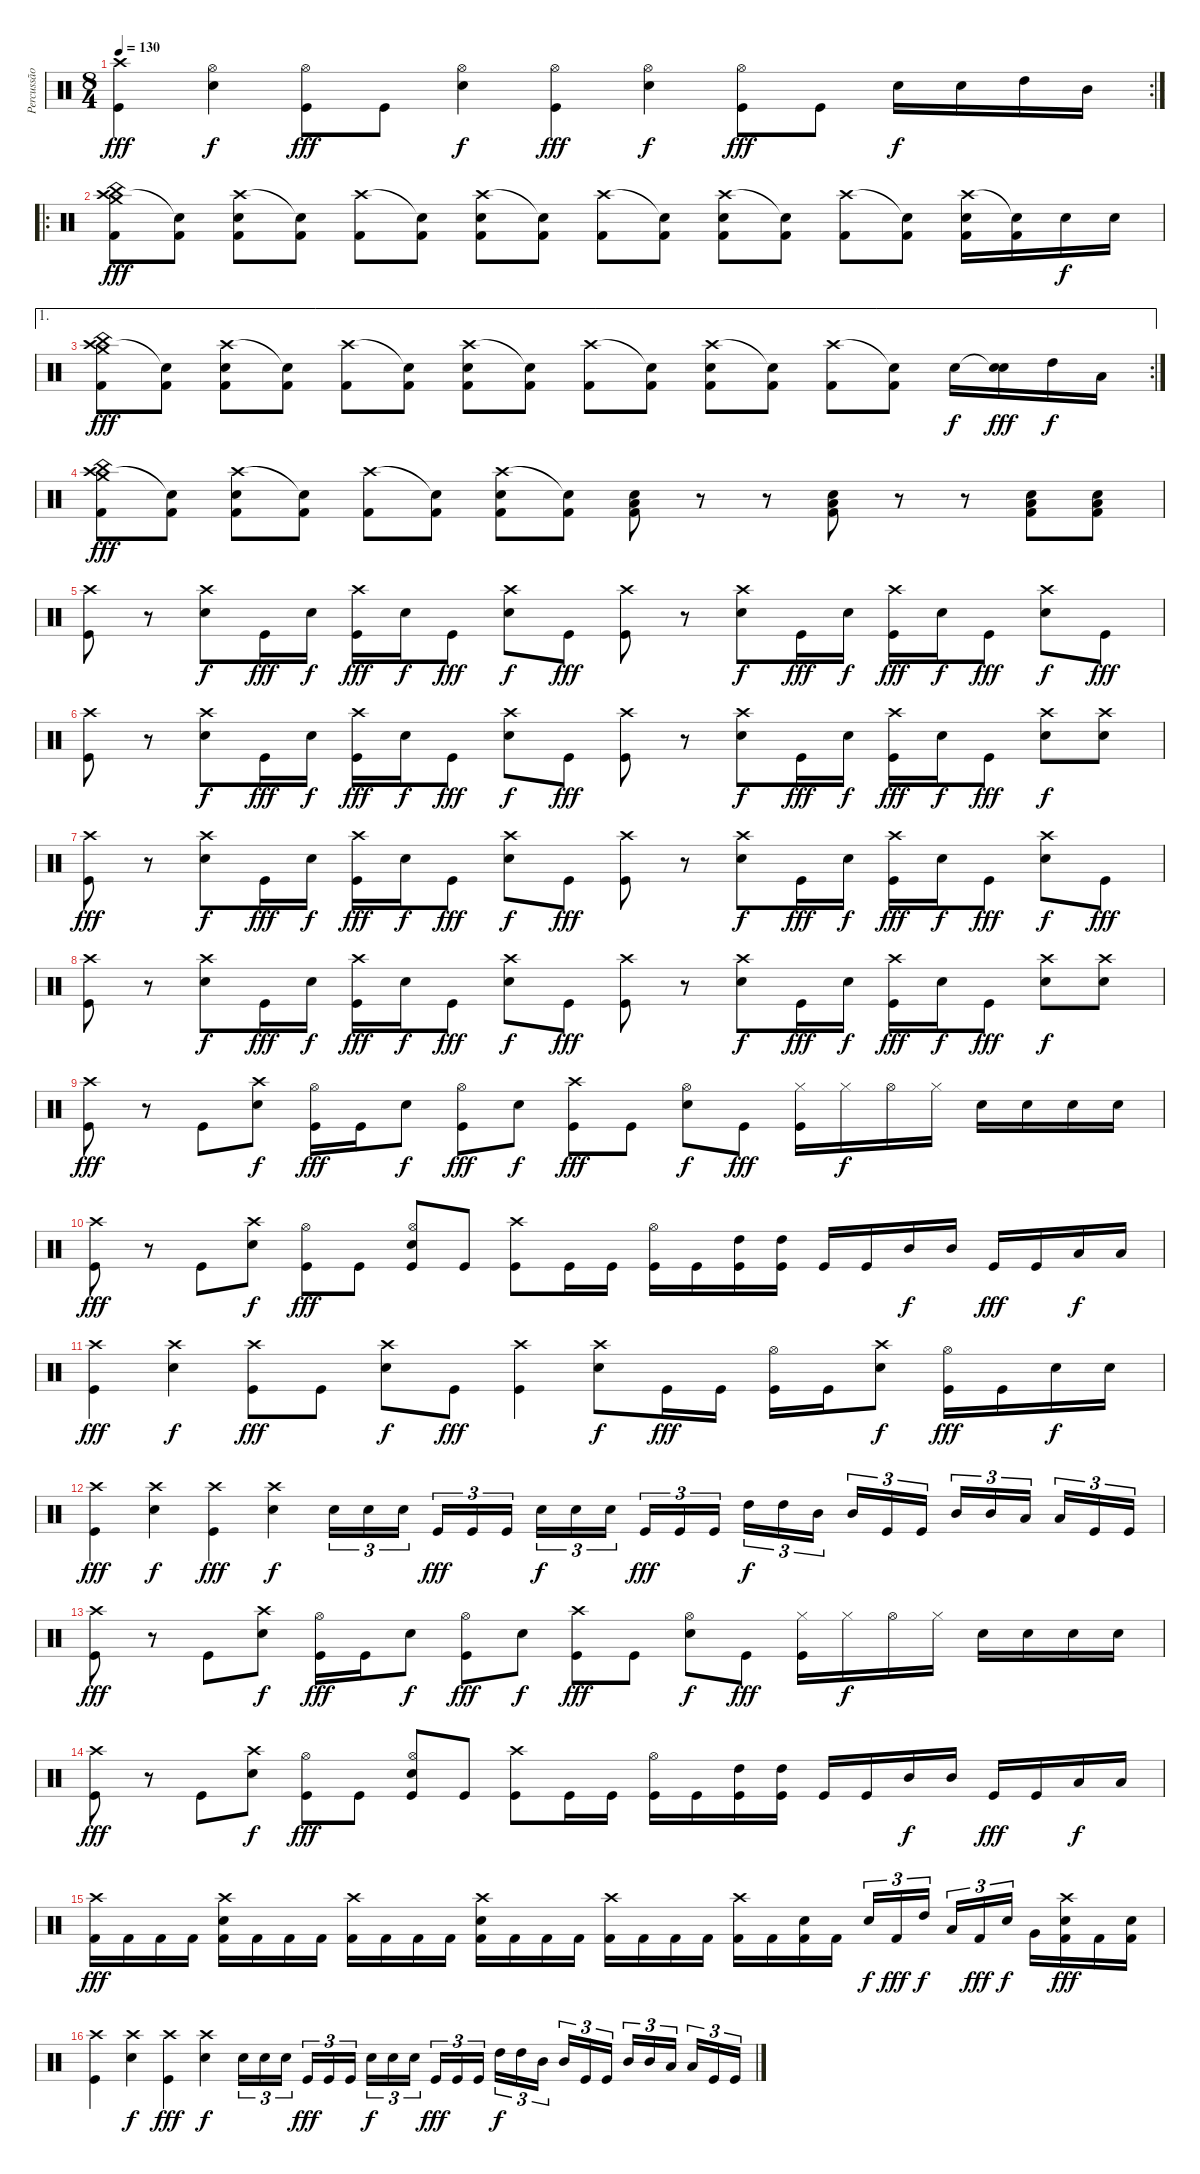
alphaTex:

\track ("Percussão" "Percussão") {instrument percussion}
\staff {score}
\articulation defaults
\rc 2
\ts (8 4)
\tempo 130
\clef neutral
\ks c
("Crash high (hit)" "Kick (hit)").4{dy fff} ("Hi-Hat (open)" "Electric Snare (hit)").4{dy f} ("Hi-Hat (open)" "Kick (hit)").8{dy fff} "Kick (hit)".8 ("Hi-Hat (open)" "Electric Snare (hit)").4{dy f} ("Hi-Hat (open)" "Kick (hit)").4{dy fff} ("Hi-Hat (open)" "Electric Snare (hit)").4{dy f} ("Hi-Hat (open)" "Kick (hit)").8{dy fff} "Kick (hit)".8 "Electric Snare (hit)".16{dy f} "Electric Snare (hit)".16 "High Tom (hit)".16 "Mid Tom (hit)".16 |
\ro
("Crash high (hit)" "Crash medium (hit)" "China (hit)" "Kick (hit) 2").8{dy fff} ("Snare (hit)"{t} "Kick (hit) 2").8 ("Crash high (hit)" "Electric Snare (hit)" "Kick (hit) 2").8 ("Snare (hit)"{t} "Kick (hit) 2").8 ("Crash high (hit)" "Kick (hit) 2").8 ("Snare (hit)"{t} "Kick (hit) 2").8 ("Crash high (hit)" "Electric Snare (hit)" "Kick (hit) 2").8 ("Snare (hit)"{t} "Kick (hit) 2").8 ("Crash high (hit)" "Kick (hit) 2").8 ("Snare (hit)"{t} "Kick (hit) 2").8 ("Crash high (hit)" "Electric Snare (hit)" "Kick (hit) 2").8 ("Snare (hit)"{t} "Kick (hit) 2").8 ("Crash high (hit)" "Kick (hit) 2").8 ("Snare (hit)"{t} "Kick (hit) 2").8 ("Crash high (hit)" "Electric Snare (hit)" "Kick (hit) 2").16 ("Snare (hit)"{t} "Kick (hit) 2").16 "Electric Snare (hit)".16{dy f} "Electric Snare (hit)".16 |
\ae 1
\rc 2
("Crash high (hit)" "Crash medium (hit)" "China (hit)" "Kick (hit) 2").8{dy fff} ("Snare (hit)"{t} "Kick (hit) 2").8 ("Crash high (hit)" "Electric Snare (hit)" "Kick (hit) 2").8 ("Snare (hit)"{t} "Kick (hit) 2").8 ("Crash high (hit)" "Kick (hit) 2").8 ("Snare (hit)"{t} "Kick (hit) 2").8 ("Crash high (hit)" "Electric Snare (hit)" "Kick (hit) 2").8 ("Snare (hit)"{t} "Kick (hit) 2").8 ("Crash high (hit)" "Kick (hit) 2").8 ("Snare (hit)"{t} "Kick (hit) 2").8 ("Crash high (hit)" "Electric Snare (hit)" "Kick (hit) 2").8 ("Snare (hit)"{t} "Kick (hit) 2").8 ("Crash high (hit)" "Kick (hit) 2").8 ("Snare (hit)"{t} "Kick (hit) 2").8 "Electric Snare (hit)".16{dy f} ("Snare (hit)"{t} "Electric Snare (hit)").16{dy fff} "High Tom (hit)".16{dy f} "Low Tom (hit)".16 |
("Crash high (hit)" "Crash medium (hit)" "China (hit)" "Kick (hit) 2").8{dy fff} ("Snare (hit)"{t} "Kick (hit) 2").8 ("Crash high (hit)" "Electric Snare (hit)" "Kick (hit) 2").8 ("Snare (hit)"{t} "Kick (hit) 2").8 ("Crash high (hit)" "Kick (hit) 2").8 ("Snare (hit)"{t} "Kick (hit) 2").8 ("Crash high (hit)" "Electric Snare (hit)" "Kick (hit) 2").8 ("Snare (hit)"{t} "Kick (hit) 2").8 ("Electric Snare (hit)" "Low Tom (hit)" "Kick (hit) 2").8 r.8 r.8 ("Electric Snare (hit)" "Low Tom (hit)" "Kick (hit) 2").8 r.8 r.8 ("Electric Snare (hit)" "Low Tom (hit)" "Kick (hit) 2").8 ("Electric Snare (hit)" "Low Tom (hit)" "Kick (hit) 2").8 |
("Crash high (hit)" "Kick (hit)").8 r.8 ("Crash high (hit)" "Electric Snare (hit)").8{dy f} "Kick (hit)".16{dy fff} "Electric Snare (hit)".16{dy f} ("Crash high (hit)" "Kick (hit)").16{dy fff} "Electric Snare (hit)".16{dy f} "Kick (hit)".8{dy fff} ("Crash high (hit)" "Electric Snare (hit)").8{dy f} "Kick (hit)".8{dy fff} ("Crash high (hit)" "Kick (hit)").8 r.8 ("Crash high (hit)" "Electric Snare (hit)").8{dy f} "Kick (hit)".16{dy fff} "Electric Snare (hit)".16{dy f} ("Crash high (hit)" "Kick (hit)").16{dy fff} "Electric Snare (hit)".16{dy f} "Kick (hit)".8{dy fff} ("Crash high (hit)" "Electric Snare (hit)").8{dy f} "Kick (hit)".8{dy fff} |
("Crash high (hit)" "Kick (hit)").8 r.8 ("Crash high (hit)" "Electric Snare (hit)").8{dy f} "Kick (hit)".16{dy fff} "Electric Snare (hit)".16{dy f} ("Crash high (hit)" "Kick (hit)").16{dy fff} "Electric Snare (hit)".16{dy f} "Kick (hit)".8{dy fff} ("Crash high (hit)" "Electric Snare (hit)").8{dy f} "Kick (hit)".8{dy fff} ("Crash high (hit)" "Kick (hit)").8 r.8 ("Crash high (hit)" "Electric Snare (hit)").8{dy f} "Kick (hit)".16{dy fff} "Electric Snare (hit)".16{dy f} ("Crash high (hit)" "Kick (hit)").16{dy fff} "Electric Snare (hit)".16{dy f} "Kick (hit)".8{dy fff} ("Crash high (hit)" "Electric Snare (hit)").8{dy f} ("Crash high (hit)" "Electric Snare (hit)").8 |
("Crash high (hit)" "Kick (hit)").8{dy fff} r.8 ("Crash high (hit)" "Electric Snare (hit)").8{dy f} "Kick (hit)".16{dy fff} "Electric Snare (hit)".16{dy f} ("Crash high (hit)" "Kick (hit)").16{dy fff} "Electric Snare (hit)".16{dy f} "Kick (hit)".8{dy fff} ("Crash high (hit)" "Electric Snare (hit)").8{dy f} "Kick (hit)".8{dy fff} ("Crash high (hit)" "Kick (hit)").8 r.8 ("Crash high (hit)" "Electric Snare (hit)").8{dy f} "Kick (hit)".16{dy fff} "Electric Snare (hit)".16{dy f} ("Crash high (hit)" "Kick (hit)").16{dy fff} "Electric Snare (hit)".16{dy f} "Kick (hit)".8{dy fff} ("Crash high (hit)" "Electric Snare (hit)").8{dy f} "Kick (hit)".8{dy fff} |
("Crash high (hit)" "Kick (hit)").8 r.8 ("Crash high (hit)" "Electric Snare (hit)").8{dy f} "Kick (hit)".16{dy fff} "Electric Snare (hit)".16{dy f} ("Crash high (hit)" "Kick (hit)").16{dy fff} "Electric Snare (hit)".16{dy f} "Kick (hit)".8{dy fff} ("Crash high (hit)" "Electric Snare (hit)").8{dy f} "Kick (hit)".8{dy fff} ("Crash high (hit)" "Kick (hit)").8 r.8 ("Crash high (hit)" "Electric Snare (hit)").8{dy f} "Kick (hit)".16{dy fff} "Electric Snare (hit)".16{dy f} ("Crash high (hit)" "Kick (hit)").16{dy fff} "Electric Snare (hit)".16{dy f} "Kick (hit)".8{dy fff} ("Crash high (hit)" "Electric Snare (hit)").8{dy f} ("Crash high (hit)" "Electric Snare (hit)").8 |
("Crash high (hit)" "Kick (hit)").8{dy fff} r.8 "Kick (hit)".8 ("Crash high (hit)" "Electric Snare (hit)").8{dy f} ("Hi-Hat (open)" "Kick (hit)").16{dy fff} "Kick (hit)".16 "Electric Snare (hit)".8{dy f} ("Hi-Hat (open)" "Kick (hit)").8{dy fff} "Electric Snare (hit)".8{dy f} ("Crash high (hit)" "Kick (hit)").8{dy fff} "Kick (hit)".8 ("Hi-Hat (open)" "Electric Snare (hit)").8{dy f} "Kick (hit)".8{dy fff} ("Hi-Hat (closed)" "Kick (hit)").16 "Hi-Hat (closed)".16{dy f} "Hi-Hat (open)".16 "Hi-Hat (closed)".16 "Electric Snare (hit)".16 "Electric Snare (hit)".16 "Electric Snare (hit)".16 "Electric Snare (hit)".16 |
("Crash high (hit)" "Kick (hit)").8{dy fff} r.8 "Kick (hit)".8 ("Crash high (hit)" "Electric Snare (hit)").8{dy f} ("Hi-Hat (open)" "Kick (hit)").8{dy fff} "Kick (hit)".8 ("Hi-Hat (open)" "Electric Snare (hit)" "Kick (hit)").8 "Kick (hit)".8 ("Crash high (hit)" "Kick (hit)").8 "Kick (hit)".16 "Kick (hit)".16 ("Hi-Hat (open)" "Kick (hit)").16 "Kick (hit)".16 ("High Tom (hit)" "Kick (hit)").16 ("High Tom (hit)" "Kick (hit)").16 "Kick (hit)".16 "Kick (hit)".16 "Mid Tom (hit)".16{dy f} "Mid Tom (hit)".16 "Kick (hit)".16{dy fff} "Kick (hit)".16 "Low Tom (hit)".16{dy f} "Low Tom (hit)".16 |
("Crash high (hit)" "Kick (hit)").4{dy fff} ("Crash high (hit)" "Electric Snare (hit)").4{dy f} ("Crash high (hit)" "Kick (hit)").8{dy fff} "Kick (hit)".8 ("Crash high (hit)" "Electric Snare (hit)").8{dy f} "Kick (hit)".8{dy fff} ("Crash high (hit)" "Kick (hit)").4 ("Crash high (hit)" "Electric Snare (hit)").8{dy f} "Kick (hit)".16{dy fff} "Kick (hit)".16 ("Hi-Hat (open)" "Kick (hit)").16 "Kick (hit)".16 ("Crash high (hit)" "Electric Snare (hit)").8{dy f} ("Hi-Hat (open)" "Kick (hit)").16{dy fff} "Kick (hit)".16 "Electric Snare (hit)".16{dy f} "Electric Snare (hit)".16 |
("Crash high (hit)" "Kick (hit)").4{dy fff} ("Crash high (hit)" "Electric Snare (hit)").4{dy f} ("Crash high (hit)" "Kick (hit)").4{dy fff} ("Crash high (hit)" "Electric Snare (hit)").4{dy f} "Electric Snare (hit)".16{tu (3 2)} "Electric Snare (hit)".16{tu (3 2)} "Electric Snare (hit)".16{tu (3 2)} "Kick (hit)".16{tu (3 2) dy fff} "Kick (hit)".16{tu (3 2)} "Kick (hit)".16{tu (3 2)} "Electric Snare (hit)".16{tu (3 2) dy f} "Electric Snare (hit)".16{tu (3 2)} "Electric Snare (hit)".16{tu (3 2)} "Kick (hit)".16{tu (3 2) dy fff} "Kick (hit)".16{tu (3 2)} "Kick (hit)".16{tu (3 2)} "High Tom (hit)".16{tu (3 2) dy f} "High Tom (hit)".16{tu (3 2)} "Mid Tom (hit)".16{tu (3 2)} "Mid Tom (hit)".16{tu (3 2)} "Kick (hit)".16{tu (3 2)} "Kick (hit)".16{tu (3 2)} "Mid Tom (hit)".16{tu (3 2)} "Mid Tom (hit)".16{tu (3 2)} "Low Tom (hit)".16{tu (3 2)} "Low Tom (hit)".16{tu (3 2)} "Kick (hit)".16{tu (3 2)} "Kick (hit)".16{tu (3 2)} |
("Crash high (hit)" "Kick (hit)").8{dy fff} r.8 "Kick (hit)".8 ("Crash high (hit)" "Electric Snare (hit)").8{dy f} ("Hi-Hat (open)" "Kick (hit)").16{dy fff} "Kick (hit)".16 "Electric Snare (hit)".8{dy f} ("Hi-Hat (open)" "Kick (hit)").8{dy fff} "Electric Snare (hit)".8{dy f} ("Crash high (hit)" "Kick (hit)").8{dy fff} "Kick (hit)".8 ("Hi-Hat (open)" "Electric Snare (hit)").8{dy f} "Kick (hit)".8{dy fff} ("Hi-Hat (closed)" "Kick (hit)").16 "Hi-Hat (closed)".16{dy f} "Hi-Hat (open)".16 "Hi-Hat (closed)".16 "Electric Snare (hit)".16 "Electric Snare (hit)".16 "Electric Snare (hit)".16 "Electric Snare (hit)".16 |
("Crash high (hit)" "Kick (hit)").8{dy fff} r.8 "Kick (hit)".8 ("Crash high (hit)" "Electric Snare (hit)").8{dy f} ("Hi-Hat (open)" "Kick (hit)").8{dy fff} "Kick (hit)".8 ("Hi-Hat (open)" "Electric Snare (hit)" "Kick (hit)").8 "Kick (hit)".8 ("Crash high (hit)" "Kick (hit)").8 "Kick (hit)".16 "Kick (hit)".16 ("Hi-Hat (open)" "Kick (hit)").16 "Kick (hit)".16 ("High Tom (hit)" "Kick (hit)").16 ("High Tom (hit)" "Kick (hit)").16 "Kick (hit)".16 "Kick (hit)".16 "Mid Tom (hit)".16{dy f} "Mid Tom (hit)".16 "Kick (hit)".16{dy fff} "Kick (hit)".16 "Low Tom (hit)".16{dy f} "Low Tom (hit)".16 |
("Crash high (hit)" "Kick (hit) 2").16{dy fff} "Kick (hit) 2".16 "Kick (hit) 2".16 "Kick (hit) 2".16 ("Crash high (hit)" "Kick (hit) 2" "Electric Snare (hit)").16 "Kick (hit) 2".16 "Kick (hit) 2".16 "Kick (hit) 2".16 ("Crash high (hit)" "Kick (hit) 2").16 "Kick (hit) 2".16 "Kick (hit) 2".16 "Kick (hit) 2".16 ("Crash high (hit)" "Kick (hit) 2" "Electric Snare (hit)").16 "Kick (hit) 2".16 "Kick (hit) 2".16 "Kick (hit) 2".16 ("Crash high (hit)" "Kick (hit) 2").16 "Kick (hit) 2".16 "Kick (hit) 2".16 "Kick (hit) 2".16 ("Crash high (hit)" "Kick (hit) 2").16 "Kick (hit) 2".16 ("Kick (hit) 2" "Electric Snare (hit)").16 "Kick (hit) 2".16 "Electric Snare (hit)".16{tu (3 2) dy f} "Kick (hit) 2".16{tu (3 2) dy fff} "High Tom (hit)".16{tu (3 2) dy f} "Low Tom (hit)".16{tu (3 2)} "Kick (hit) 2".16{tu (3 2) dy fff} "Electric Snare (hit)".16{tu (3 2) dy f} "Very Low Tom (hit)".16 ("Crash high (hit)" "Kick (hit) 2" "Electric Snare (hit)").16{dy fff} "Kick (hit) 2".16 ("Kick (hit) 2" "Electric Snare (hit)").16 |
("Crash high (hit)" "Kick (hit)").4 ("Crash high (hit)" "Electric Snare (hit)").4{dy f} ("Crash high (hit)" "Kick (hit)").4{dy fff} ("Crash high (hit)" "Electric Snare (hit)").4{dy f} "Electric Snare (hit)".16{tu (3 2)} "Electric Snare (hit)".16{tu (3 2)} "Electric Snare (hit)".16{tu (3 2)} "Kick (hit)".16{tu (3 2) dy fff} "Kick (hit)".16{tu (3 2)} "Kick (hit)".16{tu (3 2)} "Electric Snare (hit)".16{tu (3 2) dy f} "Electric Snare (hit)".16{tu (3 2)} "Electric Snare (hit)".16{tu (3 2)} "Kick (hit)".16{tu (3 2) dy fff} "Kick (hit)".16{tu (3 2)} "Kick (hit)".16{tu (3 2)} "High Tom (hit)".16{tu (3 2) dy f} "High Tom (hit)".16{tu (3 2)} "Mid Tom (hit)".16{tu (3 2)} "Mid Tom (hit)".16{tu (3 2)} "Kick (hit)".16{tu (3 2)} "Kick (hit)".16{tu (3 2)} "Mid Tom (hit)".16{tu (3 2)} "Mid Tom (hit)".16{tu (3 2)} "Low Tom (hit)".16{tu (3 2)} "Low Tom (hit)".16{tu (3 2)} "Kick (hit)".16{tu (3 2)} "Kick (hit)".16{tu (3 2)}
